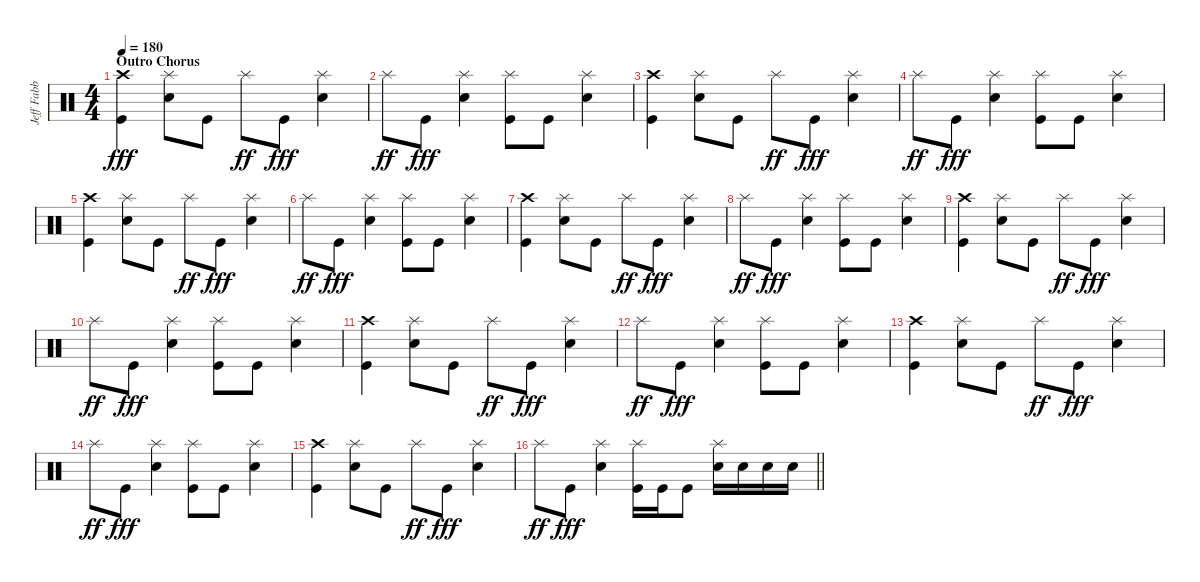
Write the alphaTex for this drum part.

\track ("Jeff Fabb (Drums)" "Jeff Fabb ") {instrument percussion}
\staff {score}
\articulation defaults
\ts (4 4)
\section ("" "Outro Chorus")
\tempo 180
\clef neutral
\ks c
("Crash high (hit)" "Kick (hit)").4{dy fff} ("Splash (hit)" "Electric Snare (hit)").8 "Kick (hit)".8 "Splash (hit)".8{dy ff} "Kick (hit)".8{dy fff} ("Splash (hit)" "Electric Snare (hit)").4 |
"Splash (hit)".8{dy ff} "Kick (hit)".8{dy fff} ("Splash (hit)" "Electric Snare (hit)").4 ("Splash (hit)" "Kick (hit)").8 "Kick (hit)".8 ("Splash (hit)" "Electric Snare (hit)").4 |
("Crash high (hit)" "Kick (hit)").4 ("Splash (hit)" "Electric Snare (hit)").8 "Kick (hit)".8 "Splash (hit)".8{dy ff} "Kick (hit)".8{dy fff} ("Splash (hit)" "Electric Snare (hit)").4 |
"Splash (hit)".8{dy ff} "Kick (hit)".8{dy fff} ("Splash (hit)" "Electric Snare (hit)").4 ("Splash (hit)" "Kick (hit)").8 "Kick (hit)".8 ("Splash (hit)" "Electric Snare (hit)").4 |
("Crash high (hit)" "Kick (hit)").4 ("Splash (hit)" "Electric Snare (hit)").8 "Kick (hit)".8 "Splash (hit)".8{dy ff} "Kick (hit)".8{dy fff} ("Splash (hit)" "Electric Snare (hit)").4 |
"Splash (hit)".8{dy ff} "Kick (hit)".8{dy fff} ("Splash (hit)" "Electric Snare (hit)").4 ("Splash (hit)" "Kick (hit)").8 "Kick (hit)".8 ("Splash (hit)" "Electric Snare (hit)").4 |
("Crash high (hit)" "Kick (hit)").4 ("Splash (hit)" "Electric Snare (hit)").8 "Kick (hit)".8 "Splash (hit)".8{dy ff} "Kick (hit)".8{dy fff} ("Splash (hit)" "Electric Snare (hit)").4 |
"Splash (hit)".8{dy ff} "Kick (hit)".8{dy fff} ("Splash (hit)" "Electric Snare (hit)").4 ("Splash (hit)" "Kick (hit)").8 "Kick (hit)".8 ("Splash (hit)" "Electric Snare (hit)").4 |
("Crash high (hit)" "Kick (hit)").4 ("Splash (hit)" "Electric Snare (hit)").8 "Kick (hit)".8 "Splash (hit)".8{dy ff} "Kick (hit)".8{dy fff} ("Splash (hit)" "Electric Snare (hit)").4 |
"Splash (hit)".8{dy ff} "Kick (hit)".8{dy fff} ("Splash (hit)" "Electric Snare (hit)").4 ("Splash (hit)" "Kick (hit)").8 "Kick (hit)".8 ("Splash (hit)" "Electric Snare (hit)").4 |
("Crash high (hit)" "Kick (hit)").4 ("Splash (hit)" "Electric Snare (hit)").8 "Kick (hit)".8 "Splash (hit)".8{dy ff} "Kick (hit)".8{dy fff} ("Splash (hit)" "Electric Snare (hit)").4 |
"Splash (hit)".8{dy ff} "Kick (hit)".8{dy fff} ("Splash (hit)" "Electric Snare (hit)").4 ("Splash (hit)" "Kick (hit)").8 "Kick (hit)".8 ("Splash (hit)" "Electric Snare (hit)").4 |
("Crash high (hit)" "Kick (hit)").4 ("Splash (hit)" "Electric Snare (hit)").8 "Kick (hit)".8 "Splash (hit)".8{dy ff} "Kick (hit)".8{dy fff} ("Splash (hit)" "Electric Snare (hit)").4 |
"Splash (hit)".8{dy ff} "Kick (hit)".8{dy fff} ("Splash (hit)" "Electric Snare (hit)").4 ("Splash (hit)" "Kick (hit)").8 "Kick (hit)".8 ("Splash (hit)" "Electric Snare (hit)").4 |
("Crash high (hit)" "Kick (hit)").4 ("Splash (hit)" "Electric Snare (hit)").8 "Kick (hit)".8 "Splash (hit)".8{dy ff} "Kick (hit)".8{dy fff} ("Splash (hit)" "Electric Snare (hit)").4 |
\barLineRight lightlight "Splash (hit)".8{dy ff} "Kick (hit)".8{dy fff}
("Splash (hit)" "Electric Snare (hit)").4 ("Splash (hit)" "Kick (hit)").16 "Kick (hit)".16 "Kick (hit)".8 ("Splash (hit)" "Electric Snare (hit)").16 "Electric Snare (hit)".16 "Electric Snare (hit)".16 "Electric Snare (hit)".16
